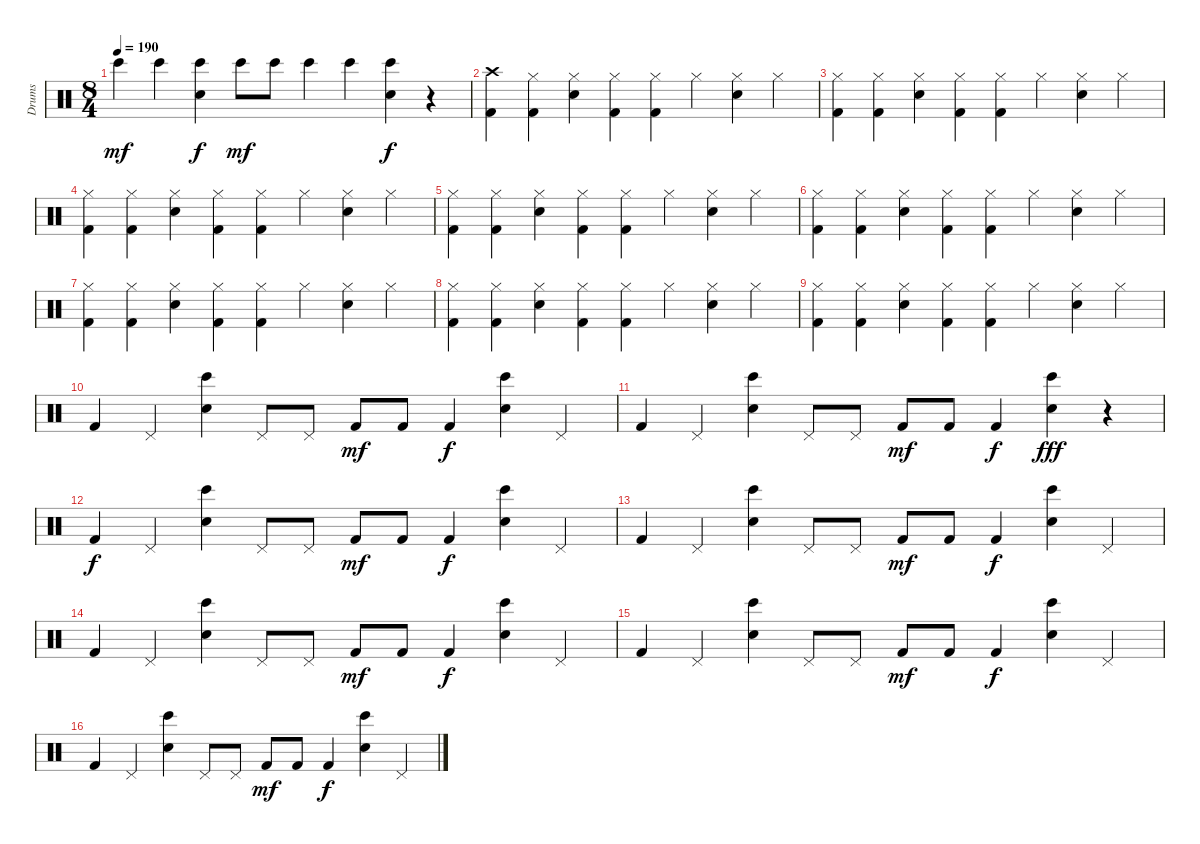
\track ("Drums" "Drums") {instrument percussion}
\staff {score}
\articulation defaults
\ts (8 4)
\tempo 190
\clef neutral
\ks c "Bongo High (hit)".4{dy mf} "Bongo High (hit)".4
("Hand Clap (hit)" "Bongo High (hit)").4{dy f} "Bongo High (hit)".8{dy mf} "Bongo High (hit)".8 "Bongo High (hit)".4 "Bongo High (hit)".4 ("Hand Clap (hit)" "Bongo High (hit)").4{dy f} r.4 |
("Crash high (hit)" "Kick (hit) 2").4{volume 13} ("Hi-Hat (closed)" "Kick (hit) 2").4 ("Hi-Hat (closed)" "Snare (hit) 2").4 ("Hi-Hat (closed)" "Kick (hit) 2").4 ("Hi-Hat (closed)" "Kick (hit) 2").4 "Hi-Hat (closed)".4 ("Hi-Hat (closed)" "Snare (hit) 2").4 "Hi-Hat (closed)".4 |
("Hi-Hat (closed)" "Kick (hit) 2").4 ("Hi-Hat (closed)" "Kick (hit) 2").4 ("Hi-Hat (closed)" "Snare (hit) 2").4 ("Hi-Hat (closed)" "Kick (hit) 2").4 ("Hi-Hat (closed)" "Kick (hit) 2").4 "Hi-Hat (closed)".4 ("Hi-Hat (closed)" "Snare (hit) 2").4 "Hi-Hat (closed)".4 |
("Hi-Hat (closed)" "Kick (hit) 2").4 ("Hi-Hat (closed)" "Kick (hit) 2").4 ("Hi-Hat (closed)" "Snare (hit) 2").4 ("Hi-Hat (closed)" "Kick (hit) 2").4 ("Hi-Hat (closed)" "Kick (hit) 2").4 "Hi-Hat (closed)".4 ("Hi-Hat (closed)" "Snare (hit) 2").4 "Hi-Hat (closed)".4 |
("Hi-Hat (closed)" "Kick (hit) 2").4 ("Hi-Hat (closed)" "Kick (hit) 2").4 ("Hi-Hat (closed)" "Snare (hit) 2").4 ("Hi-Hat (closed)" "Kick (hit) 2").4 ("Hi-Hat (closed)" "Kick (hit) 2").4 "Hi-Hat (closed)".4 ("Hi-Hat (closed)" "Snare (hit) 2").4 "Hi-Hat (closed)".4 |
("Hi-Hat (closed)" "Kick (hit) 2").4 ("Hi-Hat (closed)" "Kick (hit) 2").4 ("Hi-Hat (closed)" "Snare (hit) 2").4 ("Hi-Hat (closed)" "Kick (hit) 2").4 ("Hi-Hat (closed)" "Kick (hit) 2").4 "Hi-Hat (closed)".4 ("Hi-Hat (closed)" "Snare (hit) 2").4 "Hi-Hat (closed)".4 |
("Hi-Hat (closed)" "Kick (hit) 2").4 ("Hi-Hat (closed)" "Kick (hit) 2").4 ("Hi-Hat (closed)" "Snare (hit) 2").4 ("Hi-Hat (closed)" "Kick (hit) 2").4 ("Hi-Hat (closed)" "Kick (hit) 2").4 "Hi-Hat (closed)".4 ("Hi-Hat (closed)" "Snare (hit) 2").4 "Hi-Hat (closed)".4 |
("Hi-Hat (closed)" "Kick (hit) 2").4 ("Hi-Hat (closed)" "Kick (hit) 2").4 ("Hi-Hat (closed)" "Snare (hit) 2").4 ("Hi-Hat (closed)" "Kick (hit) 2").4 ("Hi-Hat (closed)" "Kick (hit) 2").4 "Hi-Hat (closed)".4 ("Hi-Hat (closed)" "Snare (hit) 2").4 "Hi-Hat (closed)".4 |
("Hi-Hat (closed)" "Kick (hit) 2").4 ("Hi-Hat (closed)" "Kick (hit) 2").4 ("Hi-Hat (closed)" "Snare (hit) 2").4 ("Hi-Hat (closed)" "Kick (hit) 2").4 ("Hi-Hat (closed)" "Kick (hit) 2").4 "Hi-Hat (closed)".4 ("Hi-Hat (closed)" "Snare (hit) 2").4 "Hi-Hat (closed)".4 |
"Kick (hit) 2".4{volume 4} "Pedal Hi-Hat (hit)".4 ("Bongo High (hit)" "Hand Clap (hit)").4 "Pedal Hi-Hat (hit)".8 "Pedal Hi-Hat (hit)".8 "Kick (hit) 2".8{dy mf} "Kick (hit) 2".8 "Kick (hit) 2".4{dy f} ("Bongo High (hit)" "Hand Clap (hit)").4 "Pedal Hi-Hat (hit)".4 |
"Kick (hit) 2".4{volume 11} "Pedal Hi-Hat (hit)".4 ("Bongo High (hit)" "Hand Clap (hit)").4 "Pedal Hi-Hat (hit)".8 "Pedal Hi-Hat (hit)".8 "Kick (hit) 2".8{dy mf} "Kick (hit) 2".8 "Kick (hit) 2".4{dy f volume 13} ("Bongo High (hit)" "Hand Clap (hit)").4{dy fff} r.4 |
"Kick (hit) 2".4{dy f volume 13} "Pedal Hi-Hat (hit)".4 ("Bongo High (hit)" "Hand Clap (hit)").4 "Pedal Hi-Hat (hit)".8 "Pedal Hi-Hat (hit)".8 "Kick (hit) 2".8{dy mf} "Kick (hit) 2".8 "Kick (hit) 2".4{dy f} ("Bongo High (hit)" "Hand Clap (hit)").4 "Pedal Hi-Hat (hit)".4 |
"Kick (hit) 2".4 "Pedal Hi-Hat (hit)".4 ("Bongo High (hit)" "Hand Clap (hit)").4 "Pedal Hi-Hat (hit)".8 "Pedal Hi-Hat (hit)".8 "Kick (hit) 2".8{dy mf} "Kick (hit) 2".8 "Kick (hit) 2".4{dy f} ("Bongo High (hit)" "Hand Clap (hit)").4 "Pedal Hi-Hat (hit)".4 |
"Kick (hit) 2".4 "Pedal Hi-Hat (hit)".4 ("Bongo High (hit)" "Hand Clap (hit)").4 "Pedal Hi-Hat (hit)".8 "Pedal Hi-Hat (hit)".8 "Kick (hit) 2".8{dy mf} "Kick (hit) 2".8 "Kick (hit) 2".4{dy f} ("Bongo High (hit)" "Hand Clap (hit)").4 "Pedal Hi-Hat (hit)".4 |
"Kick (hit) 2".4 "Pedal Hi-Hat (hit)".4 ("Bongo High (hit)" "Hand Clap (hit)").4 "Pedal Hi-Hat (hit)".8 "Pedal Hi-Hat (hit)".8 "Kick (hit) 2".8{dy mf} "Kick (hit) 2".8 "Kick (hit) 2".4{dy f} ("Bongo High (hit)" "Hand Clap (hit)").4 "Pedal Hi-Hat (hit)".4 |
"Kick (hit) 2".4 "Pedal Hi-Hat (hit)".4 ("Bongo High (hit)" "Hand Clap (hit)").4 "Pedal Hi-Hat (hit)".8 "Pedal Hi-Hat (hit)".8 "Kick (hit) 2".8{dy mf} "Kick (hit) 2".8 "Kick (hit) 2".4{dy f} ("Bongo High (hit)" "Hand Clap (hit)").4 "Pedal Hi-Hat (hit)".4
